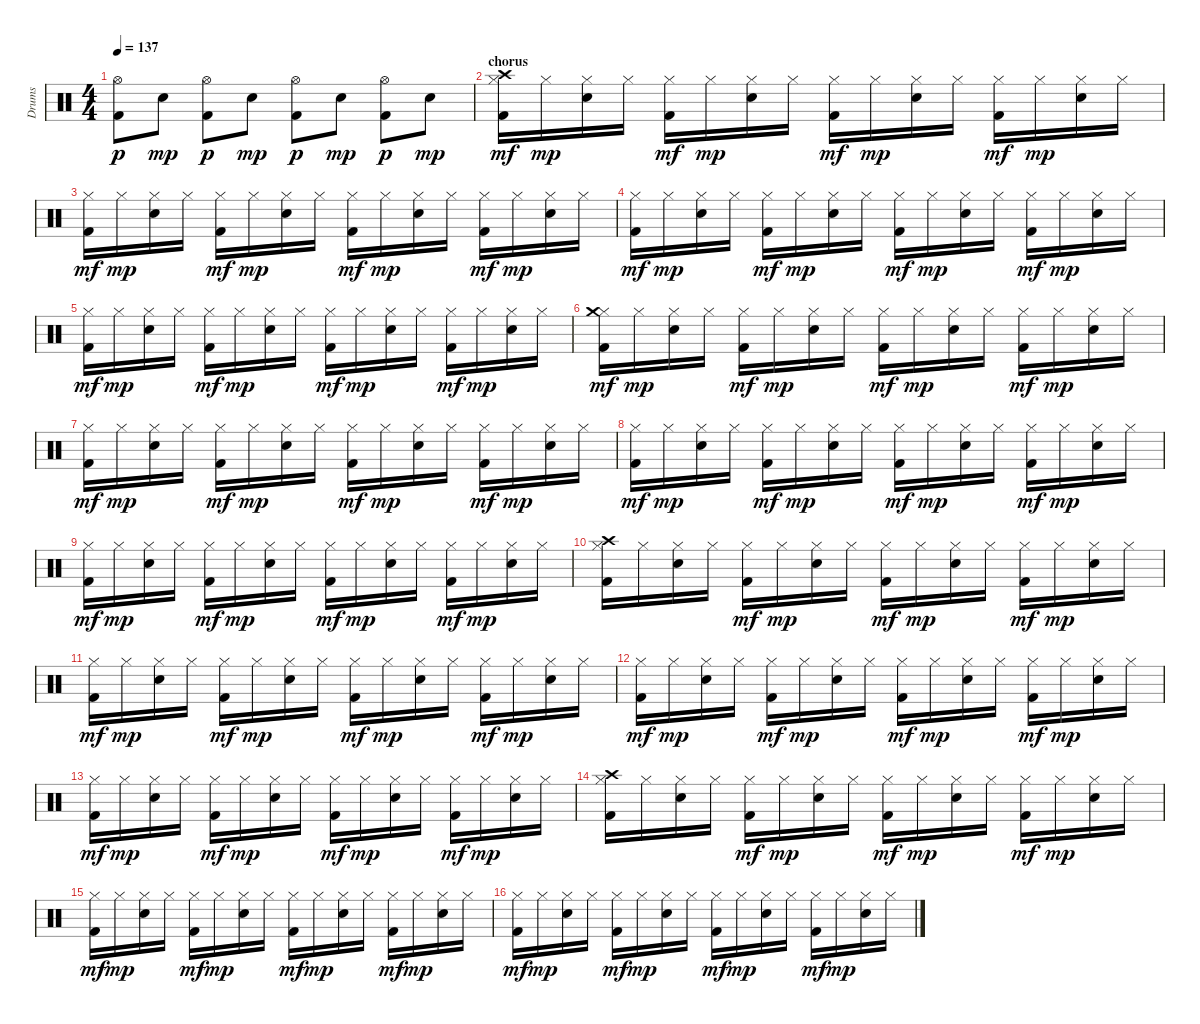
\track ("Drums" "Drums") {instrument percussion}
\staff {score}
\articulation defaults
\ts (4 4)
\tempo 137
\clef neutral
\ks c
("Hi-Hat (open)" "Kick (hit) 2").8{dy p} "Snare (hit) 2".8{dy mp} ("Hi-Hat (open)" "Kick (hit) 2").8{dy p} "Snare (hit) 2".8{dy mp} ("Hi-Hat (open)" "Kick (hit) 2").8{dy p} "Snare (hit) 2".8{dy mp} ("Hi-Hat (open)" "Kick (hit) 2").8{dy p} "Snare (hit) 2".8{dy mp} |
\section ("" "chorus")
("Hi-Hat (closed)" "Crash high (hit)" "Kick (hit) 2").16{dy mf} "Hi-Hat (closed)".16{dy mp} ("Hi-Hat (closed)" "Snare (hit) 2").16 "Hi-Hat (closed)".16 ("Hi-Hat (closed)" "Kick (hit) 2").16{dy mf} "Hi-Hat (closed)".16{dy mp} ("Hi-Hat (closed)" "Snare (hit) 2").16 "Hi-Hat (closed)".16 ("Hi-Hat (closed)" "Kick (hit) 2").16{dy mf} "Hi-Hat (closed)".16{dy mp} ("Hi-Hat (closed)" "Snare (hit) 2").16 "Hi-Hat (closed)".16 ("Hi-Hat (closed)" "Kick (hit) 2").16{dy mf} "Hi-Hat (closed)".16{dy mp} ("Hi-Hat (closed)" "Snare (hit) 2").16 "Hi-Hat (closed)".16 |
("Hi-Hat (closed)" "Kick (hit) 2").16{dy mf} "Hi-Hat (closed)".16{dy mp} ("Hi-Hat (closed)" "Snare (hit) 2").16 "Hi-Hat (closed)".16 ("Hi-Hat (closed)" "Kick (hit) 2").16{dy mf} "Hi-Hat (closed)".16{dy mp} ("Hi-Hat (closed)" "Snare (hit) 2").16 "Hi-Hat (closed)".16 ("Hi-Hat (closed)" "Kick (hit) 2").16{dy mf} "Hi-Hat (closed)".16{dy mp} ("Hi-Hat (closed)" "Snare (hit) 2").16 "Hi-Hat (closed)".16 ("Hi-Hat (closed)" "Kick (hit) 2").16{dy mf} "Hi-Hat (closed)".16{dy mp} ("Hi-Hat (closed)" "Snare (hit) 2").16 "Hi-Hat (closed)".16 |
("Hi-Hat (closed)" "Kick (hit) 2").16{dy mf} "Hi-Hat (closed)".16{dy mp} ("Hi-Hat (closed)" "Snare (hit) 2").16 "Hi-Hat (closed)".16 ("Hi-Hat (closed)" "Kick (hit) 2").16{dy mf} "Hi-Hat (closed)".16{dy mp} ("Hi-Hat (closed)" "Snare (hit) 2").16 "Hi-Hat (closed)".16 ("Hi-Hat (closed)" "Kick (hit) 2").16{dy mf} "Hi-Hat (closed)".16{dy mp} ("Hi-Hat (closed)" "Snare (hit) 2").16 "Hi-Hat (closed)".16 ("Hi-Hat (closed)" "Kick (hit) 2").16{dy mf} "Hi-Hat (closed)".16{dy mp} ("Hi-Hat (closed)" "Snare (hit) 2").16 "Hi-Hat (closed)".16 |
("Hi-Hat (closed)" "Kick (hit) 2").16{dy mf} "Hi-Hat (closed)".16{dy mp} ("Hi-Hat (closed)" "Snare (hit) 2").16 "Hi-Hat (closed)".16 ("Hi-Hat (closed)" "Kick (hit) 2").16{dy mf} "Hi-Hat (closed)".16{dy mp} ("Hi-Hat (closed)" "Snare (hit) 2").16 "Hi-Hat (closed)".16 ("Hi-Hat (closed)" "Kick (hit) 2").16{dy mf} "Hi-Hat (closed)".16{dy mp} ("Hi-Hat (closed)" "Snare (hit) 2").16 "Hi-Hat (closed)".16 ("Hi-Hat (closed)" "Kick (hit) 2").16{dy mf} "Hi-Hat (closed)".16{dy mp} ("Hi-Hat (closed)" "Snare (hit) 2").16 "Hi-Hat (closed)".16 |
("Hi-Hat (closed)" "Crash medium (hit)" "Kick (hit) 2").16{dy mf} "Hi-Hat (closed)".16{dy mp} ("Hi-Hat (closed)" "Snare (hit) 2").16 "Hi-Hat (closed)".16 ("Hi-Hat (closed)" "Kick (hit) 2").16{dy mf} "Hi-Hat (closed)".16{dy mp} ("Hi-Hat (closed)" "Snare (hit) 2").16 "Hi-Hat (closed)".16 ("Hi-Hat (closed)" "Kick (hit) 2").16{dy mf} "Hi-Hat (closed)".16{dy mp} ("Hi-Hat (closed)" "Snare (hit) 2").16 "Hi-Hat (closed)".16 ("Hi-Hat (closed)" "Kick (hit) 2").16{dy mf} "Hi-Hat (closed)".16{dy mp} ("Hi-Hat (closed)" "Snare (hit) 2").16 "Hi-Hat (closed)".16 |
("Hi-Hat (closed)" "Kick (hit) 2").16{dy mf} "Hi-Hat (closed)".16{dy mp} ("Hi-Hat (closed)" "Snare (hit) 2").16 "Hi-Hat (closed)".16 ("Hi-Hat (closed)" "Kick (hit) 2").16{dy mf} "Hi-Hat (closed)".16{dy mp} ("Hi-Hat (closed)" "Snare (hit) 2").16 "Hi-Hat (closed)".16 ("Hi-Hat (closed)" "Kick (hit) 2").16{dy mf} "Hi-Hat (closed)".16{dy mp} ("Hi-Hat (closed)" "Snare (hit) 2").16 "Hi-Hat (closed)".16 ("Hi-Hat (closed)" "Kick (hit) 2").16{dy mf} "Hi-Hat (closed)".16{dy mp} ("Hi-Hat (closed)" "Snare (hit) 2").16 "Hi-Hat (closed)".16 |
("Hi-Hat (closed)" "Kick (hit) 2").16{dy mf} "Hi-Hat (closed)".16{dy mp} ("Hi-Hat (closed)" "Snare (hit) 2").16 "Hi-Hat (closed)".16 ("Hi-Hat (closed)" "Kick (hit) 2").16{dy mf} "Hi-Hat (closed)".16{dy mp} ("Hi-Hat (closed)" "Snare (hit) 2").16 "Hi-Hat (closed)".16 ("Hi-Hat (closed)" "Kick (hit) 2").16{dy mf} "Hi-Hat (closed)".16{dy mp} ("Hi-Hat (closed)" "Snare (hit) 2").16 "Hi-Hat (closed)".16 ("Hi-Hat (closed)" "Kick (hit) 2").16{dy mf} "Hi-Hat (closed)".16{dy mp} ("Hi-Hat (closed)" "Snare (hit) 2").16 "Hi-Hat (closed)".16 |
("Hi-Hat (closed)" "Kick (hit) 2").16{dy mf} "Hi-Hat (closed)".16{dy mp} ("Hi-Hat (closed)" "Snare (hit) 2").16 "Hi-Hat (closed)".16 ("Hi-Hat (closed)" "Kick (hit) 2").16{dy mf} "Hi-Hat (closed)".16{dy mp} ("Hi-Hat (closed)" "Snare (hit) 2").16 "Hi-Hat (closed)".16 ("Hi-Hat (closed)" "Kick (hit) 2").16{dy mf} "Hi-Hat (closed)".16{dy mp} ("Hi-Hat (closed)" "Snare (hit) 2").16 "Hi-Hat (closed)".16 ("Hi-Hat (closed)" "Kick (hit) 2").16{dy mf} "Hi-Hat (closed)".16{dy mp} ("Hi-Hat (closed)" "Snare (hit) 2").16 "Hi-Hat (closed)".16 |
("Hi-Hat (closed)" "Crash high (hit)" "Kick (hit) 2").16 "Hi-Hat (closed)".16 ("Hi-Hat (closed)" "Snare (hit) 2").16 "Hi-Hat (closed)".16 ("Hi-Hat (closed)" "Kick (hit) 2").16{dy mf} "Hi-Hat (closed)".16{dy mp} ("Hi-Hat (closed)" "Snare (hit) 2").16 "Hi-Hat (closed)".16 ("Hi-Hat (closed)" "Kick (hit) 2").16{dy mf} "Hi-Hat (closed)".16{dy mp} ("Hi-Hat (closed)" "Snare (hit) 2").16 "Hi-Hat (closed)".16 ("Hi-Hat (closed)" "Kick (hit) 2").16{dy mf} "Hi-Hat (closed)".16{dy mp} ("Hi-Hat (closed)" "Snare (hit) 2").16 "Hi-Hat (closed)".16 |
("Hi-Hat (closed)" "Kick (hit) 2").16{dy mf} "Hi-Hat (closed)".16{dy mp} ("Hi-Hat (closed)" "Snare (hit) 2").16 "Hi-Hat (closed)".16 ("Hi-Hat (closed)" "Kick (hit) 2").16{dy mf} "Hi-Hat (closed)".16{dy mp} ("Hi-Hat (closed)" "Snare (hit) 2").16 "Hi-Hat (closed)".16 ("Hi-Hat (closed)" "Kick (hit) 2").16{dy mf} "Hi-Hat (closed)".16{dy mp} ("Hi-Hat (closed)" "Snare (hit) 2").16 "Hi-Hat (closed)".16 ("Hi-Hat (closed)" "Kick (hit) 2").16{dy mf} "Hi-Hat (closed)".16{dy mp} ("Hi-Hat (closed)" "Snare (hit) 2").16 "Hi-Hat (closed)".16 |
("Hi-Hat (closed)" "Kick (hit) 2").16{dy mf} "Hi-Hat (closed)".16{dy mp} ("Hi-Hat (closed)" "Snare (hit) 2").16 "Hi-Hat (closed)".16 ("Hi-Hat (closed)" "Kick (hit) 2").16{dy mf} "Hi-Hat (closed)".16{dy mp} ("Hi-Hat (closed)" "Snare (hit) 2").16 "Hi-Hat (closed)".16 ("Hi-Hat (closed)" "Kick (hit) 2").16{dy mf} "Hi-Hat (closed)".16{dy mp} ("Hi-Hat (closed)" "Snare (hit) 2").16 "Hi-Hat (closed)".16 ("Hi-Hat (closed)" "Kick (hit) 2").16{dy mf} "Hi-Hat (closed)".16{dy mp} ("Hi-Hat (closed)" "Snare (hit) 2").16 "Hi-Hat (closed)".16 |
("Hi-Hat (closed)" "Kick (hit) 2").16{dy mf} "Hi-Hat (closed)".16{dy mp} ("Hi-Hat (closed)" "Snare (hit) 2").16 "Hi-Hat (closed)".16 ("Hi-Hat (closed)" "Kick (hit) 2").16{dy mf} "Hi-Hat (closed)".16{dy mp} ("Hi-Hat (closed)" "Snare (hit) 2").16 "Hi-Hat (closed)".16 ("Hi-Hat (closed)" "Kick (hit) 2").16{dy mf} "Hi-Hat (closed)".16{dy mp} ("Hi-Hat (closed)" "Snare (hit) 2").16 "Hi-Hat (closed)".16 ("Hi-Hat (closed)" "Kick (hit) 2").16{dy mf} "Hi-Hat (closed)".16{dy mp} ("Hi-Hat (closed)" "Snare (hit) 2").16 "Hi-Hat (closed)".16 |
("Hi-Hat (closed)" "Crash high (hit)" "Kick (hit) 2").16 "Hi-Hat (closed)".16 ("Hi-Hat (closed)" "Snare (hit) 2").16 "Hi-Hat (closed)".16 ("Hi-Hat (closed)" "Kick (hit) 2").16{dy mf} "Hi-Hat (closed)".16{dy mp} ("Hi-Hat (closed)" "Snare (hit) 2").16 "Hi-Hat (closed)".16 ("Hi-Hat (closed)" "Kick (hit) 2").16{dy mf} "Hi-Hat (closed)".16{dy mp} ("Hi-Hat (closed)" "Snare (hit) 2").16 "Hi-Hat (closed)".16 ("Hi-Hat (closed)" "Kick (hit) 2").16{dy mf} "Hi-Hat (closed)".16{dy mp} ("Hi-Hat (closed)" "Snare (hit) 2").16 "Hi-Hat (closed)".16 |
("Hi-Hat (closed)" "Kick (hit) 2").16{dy mf} "Hi-Hat (closed)".16{dy mp} ("Hi-Hat (closed)" "Snare (hit) 2").16 "Hi-Hat (closed)".16 ("Hi-Hat (closed)" "Kick (hit) 2").16{dy mf} "Hi-Hat (closed)".16{dy mp} ("Hi-Hat (closed)" "Snare (hit) 2").16 "Hi-Hat (closed)".16 ("Hi-Hat (closed)" "Kick (hit) 2").16{dy mf} "Hi-Hat (closed)".16{dy mp} ("Hi-Hat (closed)" "Snare (hit) 2").16 "Hi-Hat (closed)".16 ("Hi-Hat (closed)" "Kick (hit) 2").16{dy mf} "Hi-Hat (closed)".16{dy mp} ("Hi-Hat (closed)" "Snare (hit) 2").16 "Hi-Hat (closed)".16 |
("Hi-Hat (closed)" "Kick (hit) 2").16{dy mf} "Hi-Hat (closed)".16{dy mp} ("Hi-Hat (closed)" "Snare (hit) 2").16 "Hi-Hat (closed)".16 ("Hi-Hat (closed)" "Kick (hit) 2").16{dy mf} "Hi-Hat (closed)".16{dy mp} ("Hi-Hat (closed)" "Snare (hit) 2").16 "Hi-Hat (closed)".16 ("Hi-Hat (closed)" "Kick (hit) 2").16{dy mf} "Hi-Hat (closed)".16{dy mp} ("Hi-Hat (closed)" "Snare (hit) 2").16 "Hi-Hat (closed)".16 ("Hi-Hat (closed)" "Kick (hit) 2").16{dy mf} "Hi-Hat (closed)".16{dy mp} ("Hi-Hat (closed)" "Snare (hit) 2").16 "Hi-Hat (closed)".16
